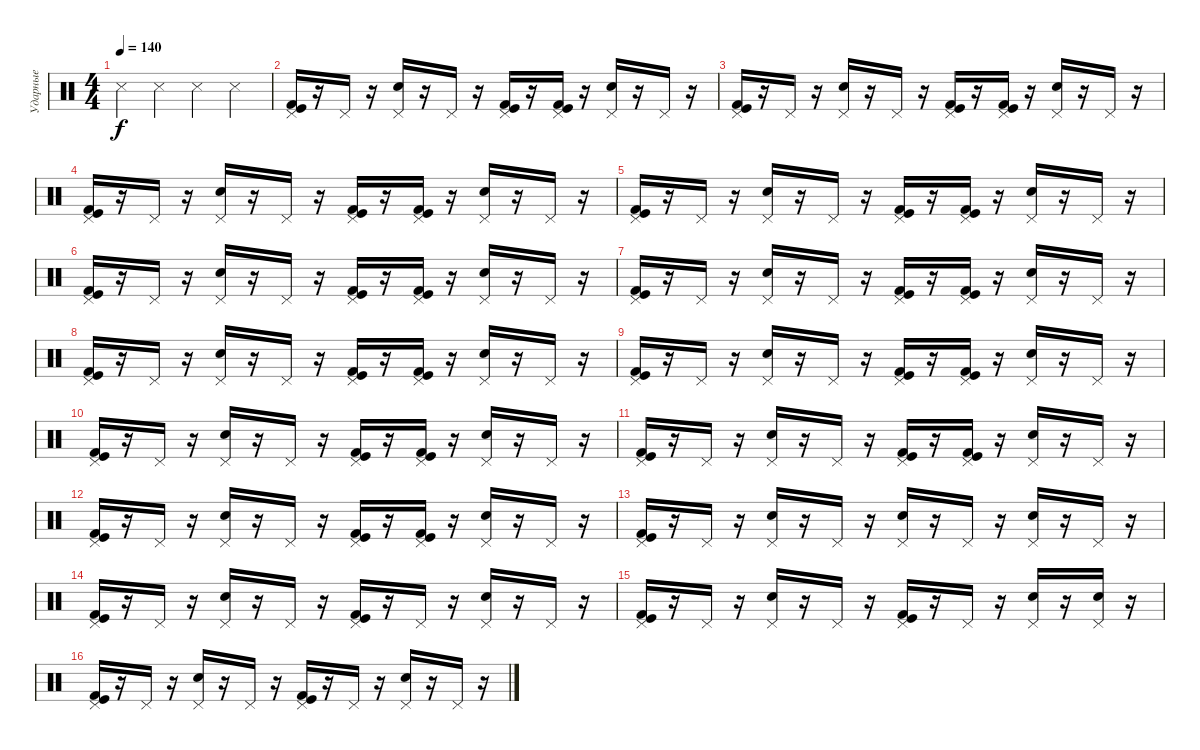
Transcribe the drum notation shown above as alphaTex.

\track ("Ударные" "Ударные") {instrument percussion}
\staff {score}
\articulation defaults
\ts (4 4)
\tempo 140
\clef neutral
\ks c "Snare (side stick) 3".4{dy f} "Snare (side stick) 3".4 "Snare (side stick) 3".4 "Snare (side stick) 3".4
|
("Kick (hit) 2" "Kick (hit)" "Pedal Hi-Hat (hit)").16 r.16 "Pedal Hi-Hat (hit)".16 r.16 ("Electric Snare (hit)" "Pedal Hi-Hat (hit)").16 r.16 "Pedal Hi-Hat (hit)".16 r.16 ("Kick (hit) 2" "Kick (hit)" "Pedal Hi-Hat (hit)").16 r.16 ("Kick (hit) 2" "Kick (hit)" "Pedal Hi-Hat (hit)").16 r.16 ("Electric Snare (hit)" "Pedal Hi-Hat (hit)").16 r.16 "Pedal Hi-Hat (hit)".16 r.16 |
("Kick (hit) 2" "Kick (hit)" "Pedal Hi-Hat (hit)").16 r.16 "Pedal Hi-Hat (hit)".16 r.16 ("Electric Snare (hit)" "Pedal Hi-Hat (hit)").16 r.16 "Pedal Hi-Hat (hit)".16 r.16 ("Kick (hit) 2" "Kick (hit)" "Pedal Hi-Hat (hit)").16 r.16 ("Kick (hit) 2" "Kick (hit)" "Pedal Hi-Hat (hit)").16 r.16 ("Electric Snare (hit)" "Pedal Hi-Hat (hit)").16 r.16 "Pedal Hi-Hat (hit)".16 r.16 |
("Kick (hit) 2" "Kick (hit)" "Pedal Hi-Hat (hit)").16 r.16 "Pedal Hi-Hat (hit)".16 r.16 ("Electric Snare (hit)" "Pedal Hi-Hat (hit)").16 r.16 "Pedal Hi-Hat (hit)".16 r.16 ("Kick (hit) 2" "Kick (hit)" "Pedal Hi-Hat (hit)").16 r.16 ("Kick (hit) 2" "Kick (hit)" "Pedal Hi-Hat (hit)").16 r.16 ("Electric Snare (hit)" "Pedal Hi-Hat (hit)").16 r.16 "Pedal Hi-Hat (hit)".16 r.16 |
("Kick (hit) 2" "Kick (hit)" "Pedal Hi-Hat (hit)").16 r.16 "Pedal Hi-Hat (hit)".16 r.16 ("Electric Snare (hit)" "Pedal Hi-Hat (hit)").16 r.16 "Pedal Hi-Hat (hit)".16 r.16 ("Kick (hit) 2" "Kick (hit)" "Pedal Hi-Hat (hit)").16 r.16 ("Kick (hit) 2" "Kick (hit)" "Pedal Hi-Hat (hit)").16 r.16 ("Electric Snare (hit)" "Pedal Hi-Hat (hit)").16 r.16 "Pedal Hi-Hat (hit)".16 r.16 |
("Kick (hit) 2" "Kick (hit)" "Pedal Hi-Hat (hit)").16 r.16 "Pedal Hi-Hat (hit)".16 r.16 ("Electric Snare (hit)" "Pedal Hi-Hat (hit)").16 r.16 "Pedal Hi-Hat (hit)".16 r.16 ("Kick (hit) 2" "Kick (hit)" "Pedal Hi-Hat (hit)").16 r.16 ("Kick (hit) 2" "Kick (hit)" "Pedal Hi-Hat (hit)").16 r.16 ("Electric Snare (hit)" "Pedal Hi-Hat (hit)").16 r.16 "Pedal Hi-Hat (hit)".16 r.16 |
("Kick (hit) 2" "Kick (hit)" "Pedal Hi-Hat (hit)").16 r.16 "Pedal Hi-Hat (hit)".16 r.16 ("Electric Snare (hit)" "Pedal Hi-Hat (hit)").16 r.16 "Pedal Hi-Hat (hit)".16 r.16 ("Kick (hit) 2" "Kick (hit)" "Pedal Hi-Hat (hit)").16 r.16 ("Kick (hit) 2" "Kick (hit)" "Pedal Hi-Hat (hit)").16 r.16 ("Electric Snare (hit)" "Pedal Hi-Hat (hit)").16 r.16 "Pedal Hi-Hat (hit)".16 r.16 |
("Kick (hit) 2" "Kick (hit)" "Pedal Hi-Hat (hit)").16 r.16 "Pedal Hi-Hat (hit)".16 r.16 ("Electric Snare (hit)" "Pedal Hi-Hat (hit)").16 r.16 "Pedal Hi-Hat (hit)".16 r.16 ("Kick (hit) 2" "Kick (hit)" "Pedal Hi-Hat (hit)").16 r.16 ("Kick (hit) 2" "Kick (hit)" "Pedal Hi-Hat (hit)").16 r.16 ("Electric Snare (hit)" "Pedal Hi-Hat (hit)").16 r.16 "Pedal Hi-Hat (hit)".16 r.16 |
("Kick (hit) 2" "Kick (hit)" "Pedal Hi-Hat (hit)").16 r.16 "Pedal Hi-Hat (hit)".16 r.16 ("Electric Snare (hit)" "Pedal Hi-Hat (hit)").16 r.16 "Pedal Hi-Hat (hit)".16 r.16 ("Kick (hit) 2" "Kick (hit)" "Pedal Hi-Hat (hit)").16 r.16 ("Kick (hit) 2" "Kick (hit)" "Pedal Hi-Hat (hit)").16 r.16 ("Electric Snare (hit)" "Pedal Hi-Hat (hit)").16 r.16 "Pedal Hi-Hat (hit)".16 r.16 |
("Kick (hit) 2" "Kick (hit)" "Pedal Hi-Hat (hit)").16 r.16 "Pedal Hi-Hat (hit)".16 r.16 ("Electric Snare (hit)" "Pedal Hi-Hat (hit)").16 r.16 "Pedal Hi-Hat (hit)".16 r.16 ("Kick (hit) 2" "Kick (hit)" "Pedal Hi-Hat (hit)").16 r.16 ("Kick (hit) 2" "Kick (hit)" "Pedal Hi-Hat (hit)").16 r.16 ("Electric Snare (hit)" "Pedal Hi-Hat (hit)").16 r.16 "Pedal Hi-Hat (hit)".16 r.16 |
("Kick (hit) 2" "Kick (hit)" "Pedal Hi-Hat (hit)").16 r.16 "Pedal Hi-Hat (hit)".16 r.16 ("Electric Snare (hit)" "Pedal Hi-Hat (hit)").16 r.16 "Pedal Hi-Hat (hit)".16 r.16 ("Kick (hit) 2" "Kick (hit)" "Pedal Hi-Hat (hit)").16 r.16 ("Kick (hit) 2" "Kick (hit)" "Pedal Hi-Hat (hit)").16 r.16 ("Electric Snare (hit)" "Pedal Hi-Hat (hit)").16 r.16 "Pedal Hi-Hat (hit)".16 r.16 |
("Kick (hit) 2" "Kick (hit)" "Pedal Hi-Hat (hit)").16 r.16 "Pedal Hi-Hat (hit)".16 r.16 ("Electric Snare (hit)" "Pedal Hi-Hat (hit)").16 r.16 "Pedal Hi-Hat (hit)".16 r.16 ("Kick (hit) 2" "Kick (hit)" "Pedal Hi-Hat (hit)").16 r.16 ("Kick (hit) 2" "Kick (hit)" "Pedal Hi-Hat (hit)").16 r.16 ("Electric Snare (hit)" "Pedal Hi-Hat (hit)").16 r.16 "Pedal Hi-Hat (hit)".16 r.16 |
("Kick (hit) 2" "Kick (hit)" "Pedal Hi-Hat (hit)").16 r.16 "Pedal Hi-Hat (hit)".16 r.16 ("Electric Snare (hit)" "Pedal Hi-Hat (hit)").16 r.16 "Pedal Hi-Hat (hit)".16 r.16 ("Snare (hit) 2" "Pedal Hi-Hat (hit)").16 r.16 "Pedal Hi-Hat (hit)".16 r.16 ("Snare (hit) 2" "Pedal Hi-Hat (hit)").16 r.16 "Pedal Hi-Hat (hit)".16 r.16 |
("Kick (hit) 2" "Kick (hit)" "Pedal Hi-Hat (hit)").16 r.16 "Pedal Hi-Hat (hit)".16 r.16 ("Snare (hit) 2" "Pedal Hi-Hat (hit)").16 r.16 "Pedal Hi-Hat (hit)".16 r.16 ("Kick (hit) 2" "Kick (hit)" "Pedal Hi-Hat (hit)").16 r.16 "Pedal Hi-Hat (hit)".16 r.16 ("Snare (hit) 2" "Pedal Hi-Hat (hit)").16 r.16 "Pedal Hi-Hat (hit)".16 r.16 |
("Kick (hit) 2" "Kick (hit)" "Pedal Hi-Hat (hit)").16 r.16 "Pedal Hi-Hat (hit)".16 r.16 ("Snare (hit) 2" "Pedal Hi-Hat (hit)").16 r.16 "Pedal Hi-Hat (hit)".16 r.16 ("Kick (hit) 2" "Kick (hit)" "Pedal Hi-Hat (hit)").16 r.16 "Pedal Hi-Hat (hit)".16 r.16 ("Snare (hit) 2" "Pedal Hi-Hat (hit)").16 r.16 ("Snare (hit) 2" "Pedal Hi-Hat (hit)").16 r.16 |
("Kick (hit) 2" "Kick (hit)" "Pedal Hi-Hat (hit)").16 r.16 "Pedal Hi-Hat (hit)".16 r.16 ("Snare (hit) 2" "Pedal Hi-Hat (hit)").16 r.16 "Pedal Hi-Hat (hit)".16 r.16 ("Kick (hit) 2" "Kick (hit)" "Pedal Hi-Hat (hit)").16 r.16 "Pedal Hi-Hat (hit)".16 r.16 ("Snare (hit) 2" "Pedal Hi-Hat (hit)").16 r.16 "Pedal Hi-Hat (hit)".16 r.16
